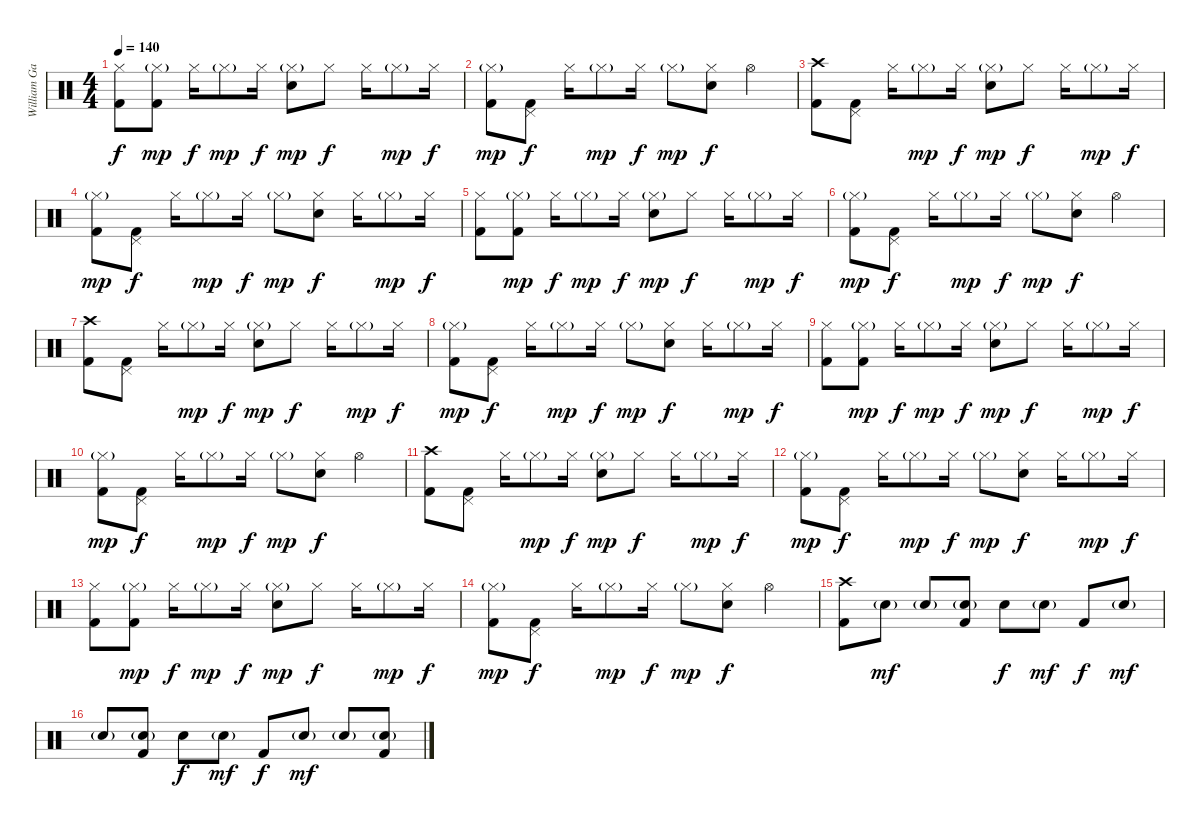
\track ("William Gates (Drums)" "William Ga") {instrument percussion}
\staff {score}
\articulation defaults
\ts (4 4)
\tempo 140
\clef neutral
\ks c
("Hi-Hat (closed)" "Kick (hit) 2").8{dy f} ("Hi-Hat (closed)"{g} "Kick (hit) 2").8{dy mp} "Hi-Hat (closed)".16{dy f} "Hi-Hat (closed)"{g}.8{dy mp} "Hi-Hat (closed)".16{dy f} ("Hi-Hat (closed)"{g} "Snare (hit) 2").8{dy mp} "Hi-Hat (closed)".8{dy f} "Hi-Hat (closed)".16 "Hi-Hat (closed)"{g}.8{dy mp} "Hi-Hat (closed)".16{dy f} |
("Hi-Hat (closed)"{g} "Kick (hit) 2").8{dy mp} ("Pedal Hi-Hat (hit)" "Kick (hit) 2").8{dy f} "Hi-Hat (closed)".16 "Hi-Hat (closed)"{g}.8{dy mp} "Hi-Hat (closed)".16{dy f} "Hi-Hat (closed)"{g}.8{dy mp} ("Hi-Hat (closed)" "Snare (hit) 2").8{dy f} "Hi-Hat (open)".4 |
("Crash high (hit)" "Kick (hit) 2").8 ("Pedal Hi-Hat (hit)" "Kick (hit) 2").8 "Hi-Hat (closed)".16 "Hi-Hat (closed)"{g}.8{dy mp} "Hi-Hat (closed)".16{dy f} ("Hi-Hat (closed)"{g} "Snare (hit) 2").8{dy mp} "Hi-Hat (closed)".8{dy f} "Hi-Hat (closed)".16 "Hi-Hat (closed)"{g}.8{dy mp} "Hi-Hat (closed)".16{dy f} |
("Hi-Hat (closed)"{g} "Kick (hit) 2").8{dy mp} ("Pedal Hi-Hat (hit)" "Kick (hit) 2").8{dy f} "Hi-Hat (closed)".16 "Hi-Hat (closed)"{g}.8{dy mp} "Hi-Hat (closed)".16{dy f} "Hi-Hat (closed)"{g}.8{dy mp} ("Hi-Hat (closed)" "Snare (hit) 2").8{dy f} "Hi-Hat (closed)".16 "Hi-Hat (closed)"{g}.8{dy mp} "Hi-Hat (closed)".16{dy f} |
("Hi-Hat (closed)" "Kick (hit) 2").8 ("Hi-Hat (closed)"{g} "Kick (hit) 2").8{dy mp} "Hi-Hat (closed)".16{dy f} "Hi-Hat (closed)"{g}.8{dy mp} "Hi-Hat (closed)".16{dy f} ("Hi-Hat (closed)"{g} "Snare (hit) 2").8{dy mp} "Hi-Hat (closed)".8{dy f} "Hi-Hat (closed)".16 "Hi-Hat (closed)"{g}.8{dy mp} "Hi-Hat (closed)".16{dy f} |
("Hi-Hat (closed)"{g} "Kick (hit) 2").8{dy mp} ("Pedal Hi-Hat (hit)" "Kick (hit) 2").8{dy f} "Hi-Hat (closed)".16 "Hi-Hat (closed)"{g}.8{dy mp} "Hi-Hat (closed)".16{dy f} "Hi-Hat (closed)"{g}.8{dy mp} ("Hi-Hat (closed)" "Snare (hit) 2").8{dy f} "Hi-Hat (open)".4 |
("Crash high (hit)" "Kick (hit) 2").8 ("Pedal Hi-Hat (hit)" "Kick (hit) 2").8 "Hi-Hat (closed)".16 "Hi-Hat (closed)"{g}.8{dy mp} "Hi-Hat (closed)".16{dy f} ("Hi-Hat (closed)"{g} "Snare (hit) 2").8{dy mp} "Hi-Hat (closed)".8{dy f} "Hi-Hat (closed)".16 "Hi-Hat (closed)"{g}.8{dy mp} "Hi-Hat (closed)".16{dy f} |
("Hi-Hat (closed)"{g} "Kick (hit) 2").8{dy mp} ("Pedal Hi-Hat (hit)" "Kick (hit) 2").8{dy f} "Hi-Hat (closed)".16 "Hi-Hat (closed)"{g}.8{dy mp} "Hi-Hat (closed)".16{dy f} "Hi-Hat (closed)"{g}.8{dy mp} ("Hi-Hat (closed)" "Snare (hit) 2").8{dy f} "Hi-Hat (closed)".16 "Hi-Hat (closed)"{g}.8{dy mp} "Hi-Hat (closed)".16{dy f} |
("Hi-Hat (closed)" "Kick (hit) 2").8 ("Hi-Hat (closed)"{g} "Kick (hit) 2").8{dy mp} "Hi-Hat (closed)".16{dy f} "Hi-Hat (closed)"{g}.8{dy mp} "Hi-Hat (closed)".16{dy f} ("Hi-Hat (closed)"{g} "Snare (hit) 2").8{dy mp} "Hi-Hat (closed)".8{dy f} "Hi-Hat (closed)".16 "Hi-Hat (closed)"{g}.8{dy mp} "Hi-Hat (closed)".16{dy f} |
("Hi-Hat (closed)"{g} "Kick (hit) 2").8{dy mp} ("Pedal Hi-Hat (hit)" "Kick (hit) 2").8{dy f} "Hi-Hat (closed)".16 "Hi-Hat (closed)"{g}.8{dy mp} "Hi-Hat (closed)".16{dy f} "Hi-Hat (closed)"{g}.8{dy mp} ("Hi-Hat (closed)" "Snare (hit) 2").8{dy f} "Hi-Hat (open)".4 |
("Crash high (hit)" "Kick (hit) 2").8 ("Pedal Hi-Hat (hit)" "Kick (hit) 2").8 "Hi-Hat (closed)".16 "Hi-Hat (closed)"{g}.8{dy mp} "Hi-Hat (closed)".16{dy f} ("Hi-Hat (closed)"{g} "Snare (hit) 2").8{dy mp} "Hi-Hat (closed)".8{dy f} "Hi-Hat (closed)".16 "Hi-Hat (closed)"{g}.8{dy mp} "Hi-Hat (closed)".16{dy f} |
("Hi-Hat (closed)"{g} "Kick (hit) 2").8{dy mp} ("Pedal Hi-Hat (hit)" "Kick (hit) 2").8{dy f} "Hi-Hat (closed)".16 "Hi-Hat (closed)"{g}.8{dy mp} "Hi-Hat (closed)".16{dy f} "Hi-Hat (closed)"{g}.8{dy mp} ("Hi-Hat (closed)" "Snare (hit) 2").8{dy f} "Hi-Hat (closed)".16 "Hi-Hat (closed)"{g}.8{dy mp} "Hi-Hat (closed)".16{dy f} |
("Hi-Hat (closed)" "Kick (hit) 2").8 ("Hi-Hat (closed)"{g} "Kick (hit) 2").8{dy mp} "Hi-Hat (closed)".16{dy f} "Hi-Hat (closed)"{g}.8{dy mp} "Hi-Hat (closed)".16{dy f} ("Hi-Hat (closed)"{g} "Snare (hit) 2").8{dy mp} "Hi-Hat (closed)".8{dy f} "Hi-Hat (closed)".16 "Hi-Hat (closed)"{g}.8{dy mp} "Hi-Hat (closed)".16{dy f} |
("Hi-Hat (closed)"{g} "Kick (hit) 2").8{dy mp} ("Pedal Hi-Hat (hit)" "Kick (hit) 2").8{dy f} "Hi-Hat (closed)".16 "Hi-Hat (closed)"{g}.8{dy mp} "Hi-Hat (closed)".16{dy f} "Hi-Hat (closed)"{g}.8{dy mp} ("Hi-Hat (closed)" "Snare (hit) 2").8{dy f} "Hi-Hat (open)".4 |
("Crash high (hit)" "Kick (hit) 2").8 "Snare (hit) 2"{g}.8{dy mf} "Snare (hit) 2"{g}.8 ("Snare (hit) 2"{g} "Kick (hit) 2").8 "Snare (hit) 2".8{dy f} "Snare (hit) 2"{g}.8{dy mf} "Kick (hit) 2".8{dy f} "Snare (hit) 2"{g}.8{dy mf} |
"Snare (hit) 2"{g}.8 ("Snare (hit) 2"{g} "Kick (hit) 2").8 "Snare (hit) 2".8{dy f} "Snare (hit) 2"{g}.8{dy mf} "Kick (hit) 2".8{dy f} "Snare (hit) 2"{g}.8{dy mf} "Snare (hit) 2"{g}.8 ("Snare (hit) 2"{g} "Kick (hit) 2").8
